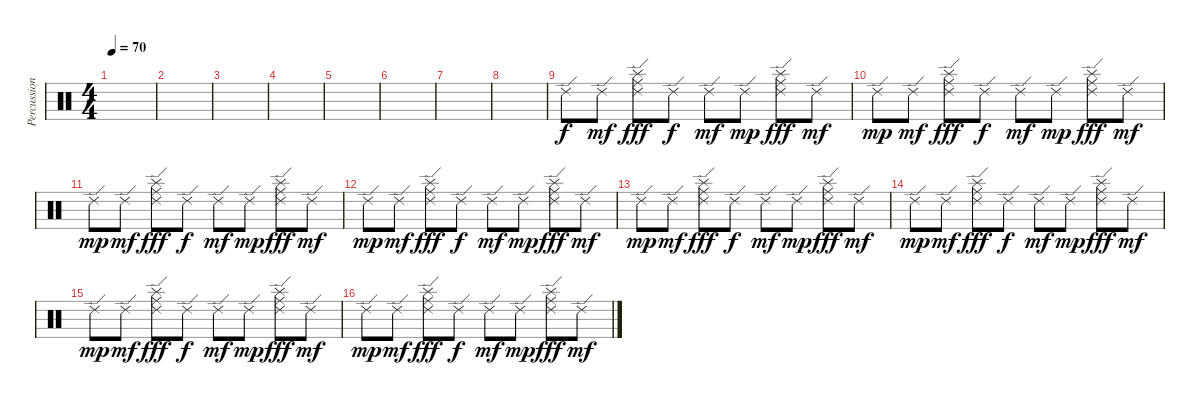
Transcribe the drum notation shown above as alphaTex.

\track ("Percussions" "Percussion") {instrument percussion}
\staff {score}
\articulation defaults
\ts (4 4)
\tempo 70
\clef neutral
\ks c
|
|
|
|
|
|
|
|
"Ride (edge) 2".8 "Ride (edge) 2".8{dy mf} ("Ride (middle)" "Ride (edge) 2" "Splash (hit)").8{dy fff} "Ride (edge) 2".8{dy f} "Ride (edge) 2".8{dy mf} "Ride (edge) 2".8{dy mp} ("Ride (middle)" "Ride (edge) 2" "Splash (hit)").8{dy fff} "Ride (edge) 2".8{dy mf} |
"Ride (edge) 2".8{dy mp} "Ride (edge) 2".8{dy mf} ("Ride (middle)" "Ride (edge) 2" "Splash (hit)").8{dy fff} "Ride (edge) 2".8{dy f} "Ride (edge) 2".8{dy mf} "Ride (edge) 2".8{dy mp} ("Ride (middle)" "Ride (edge) 2" "Splash (hit)").8{dy fff} "Ride (edge) 2".8{dy mf} |
"Ride (edge) 2".8{dy mp} "Ride (edge) 2".8{dy mf} ("Ride (middle)" "Ride (edge) 2" "Splash (hit)").8{dy fff} "Ride (edge) 2".8{dy f} "Ride (edge) 2".8{dy mf} "Ride (edge) 2".8{dy mp} ("Ride (middle)" "Ride (edge) 2" "Splash (hit)").8{dy fff} "Ride (edge) 2".8{dy mf} |
"Ride (edge) 2".8{dy mp} "Ride (edge) 2".8{dy mf} ("Ride (middle)" "Ride (edge) 2" "Splash (hit)").8{dy fff} "Ride (edge) 2".8{dy f} "Ride (edge) 2".8{dy mf} "Ride (edge) 2".8{dy mp} ("Ride (middle)" "Ride (edge) 2" "Splash (hit)").8{dy fff} "Ride (edge) 2".8{dy mf} |
"Ride (edge) 2".8{dy mp} "Ride (edge) 2".8{dy mf} ("Ride (middle)" "Ride (edge) 2" "Splash (hit)").8{dy fff} "Ride (edge) 2".8{dy f} "Ride (edge) 2".8{dy mf} "Ride (edge) 2".8{dy mp} ("Ride (middle)" "Ride (edge) 2" "Splash (hit)").8{dy fff} "Ride (edge) 2".8{dy mf} |
"Ride (edge) 2".8{dy mp} "Ride (edge) 2".8{dy mf} ("Ride (middle)" "Ride (edge) 2" "Splash (hit)").8{dy fff} "Ride (edge) 2".8{dy f} "Ride (edge) 2".8{dy mf} "Ride (edge) 2".8{dy mp} ("Ride (middle)" "Ride (edge) 2" "Splash (hit)").8{dy fff} "Ride (edge) 2".8{dy mf} |
"Ride (edge) 2".8{dy mp} "Ride (edge) 2".8{dy mf} ("Ride (middle)" "Ride (edge) 2" "Splash (hit)").8{dy fff} "Ride (edge) 2".8{dy f} "Ride (edge) 2".8{dy mf} "Ride (edge) 2".8{dy mp} ("Ride (middle)" "Ride (edge) 2" "Splash (hit)").8{dy fff} "Ride (edge) 2".8{dy mf} |
"Ride (edge) 2".8{dy mp} "Ride (edge) 2".8{dy mf} ("Ride (middle)" "Ride (edge) 2" "Splash (hit)").8{dy fff} "Ride (edge) 2".8{dy f} "Ride (edge) 2".8{dy mf} "Ride (edge) 2".8{dy mp} ("Ride (middle)" "Ride (edge) 2" "Splash (hit)").8{dy fff} "Ride (edge) 2".8{dy mf}
